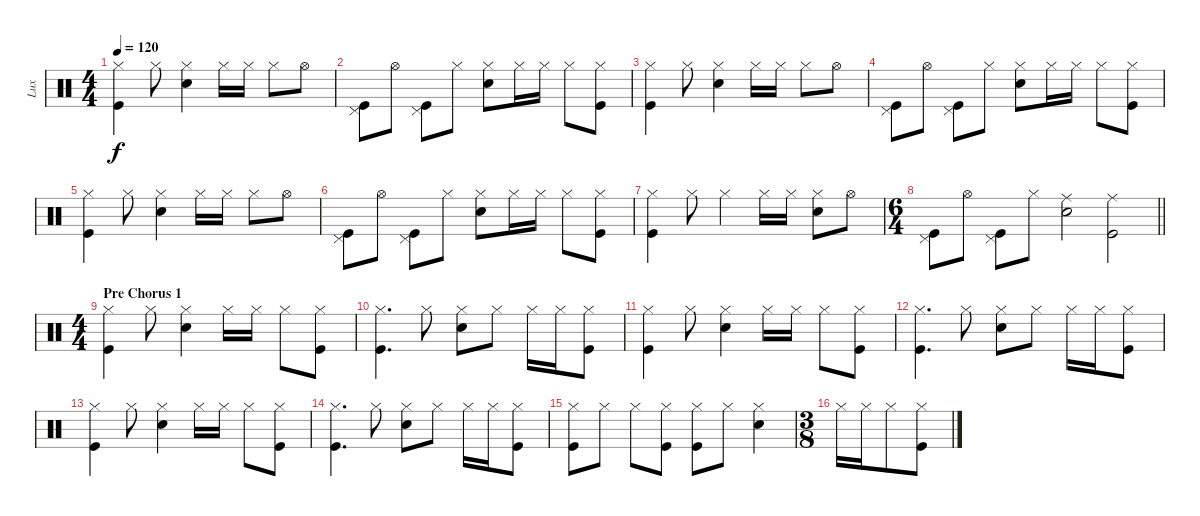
\track ("Lux" "Lux") {instrument percussion}
\staff {score}
\articulation defaults
\ts (4 4)
\tempo 120
\clef neutral
\ks c
("Hi-Hat (closed)" "Kick (hit)").4{dy f} "Hi-Hat (closed)".8 ("Hi-Hat (closed)" "Snare (hit) 2").4 "Hi-Hat (closed)".16 "Hi-Hat (closed)".16 "Hi-Hat (closed)".8 "Hi-Hat (open)".8 |
("Kick (hit)" "Pedal Hi-Hat (hit)").8 "Hi-Hat (open)".8 ("Kick (hit)" "Pedal Hi-Hat (hit)").8 "Hi-Hat (closed)".8 ("Hi-Hat (closed)" "Snare (hit) 2").8 "Hi-Hat (closed)".16 "Hi-Hat (closed)".16 "Hi-Hat (closed)".8 ("Hi-Hat (closed)" "Kick (hit)").8 |
("Hi-Hat (closed)" "Kick (hit)").4 "Hi-Hat (closed)".8 ("Hi-Hat (closed)" "Snare (hit) 2").4 "Hi-Hat (closed)".16 "Hi-Hat (closed)".16 "Hi-Hat (closed)".8 "Hi-Hat (open)".8 |
("Kick (hit)" "Pedal Hi-Hat (hit)").8 "Hi-Hat (open)".8 ("Kick (hit)" "Pedal Hi-Hat (hit)").8 "Hi-Hat (closed)".8 ("Hi-Hat (closed)" "Snare (hit) 2").8 "Hi-Hat (closed)".16 "Hi-Hat (closed)".16 "Hi-Hat (closed)".8 ("Hi-Hat (closed)" "Kick (hit)").8 |
("Hi-Hat (closed)" "Kick (hit)").4 "Hi-Hat (closed)".8 ("Hi-Hat (closed)" "Snare (hit) 2").4 "Hi-Hat (closed)".16 "Hi-Hat (closed)".16 "Hi-Hat (closed)".8 "Hi-Hat (open)".8 |
("Kick (hit)" "Pedal Hi-Hat (hit)").8 "Hi-Hat (open)".8 ("Kick (hit)" "Pedal Hi-Hat (hit)").8 "Hi-Hat (closed)".8 ("Hi-Hat (closed)" "Snare (hit) 2").8 "Hi-Hat (closed)".16 "Hi-Hat (closed)".16 "Hi-Hat (closed)".8 ("Hi-Hat (closed)" "Kick (hit)").8 |
("Hi-Hat (closed)" "Kick (hit)").4 "Hi-Hat (closed)".8 "Hi-Hat (closed)".4 "Hi-Hat (closed)".16 "Hi-Hat (closed)".16 ("Hi-Hat (closed)" "Snare (hit) 2").8 "Hi-Hat (open)".8 |
\ts (6 4)
\barLineRight lightlight
("Kick (hit)" "Pedal Hi-Hat (hit)").8 "Hi-Hat (open)".8 ("Kick (hit)" "Pedal Hi-Hat (hit)").8 "Hi-Hat (closed)".8 ("Ride (middle)" "Snare (hit) 2").2 ("Ride (middle)" "Kick (hit)").2 |
\ts (4 4)
\section ("" "Pre Chorus 1")
("Hi-Hat (closed)" "Kick (hit)").4 "Hi-Hat (closed)".8 ("Hi-Hat (closed)" "Snare (hit) 2").4 "Hi-Hat (closed)".16 "Hi-Hat (closed)".16 "Hi-Hat (closed)".8 ("Hi-Hat (closed)" "Kick (hit)").8 |
("Hi-Hat (closed)" "Kick (hit)").4{d} "Hi-Hat (closed)".8 ("Hi-Hat (closed)" "Snare (hit) 2").8 "Hi-Hat (closed)".8 "Hi-Hat (closed)".16 "Hi-Hat (closed)".16 ("Hi-Hat (closed)" "Kick (hit)").8 |
("Hi-Hat (closed)" "Kick (hit)").4 "Hi-Hat (closed)".8 ("Hi-Hat (closed)" "Snare (hit) 2").4 "Hi-Hat (closed)".16 "Hi-Hat (closed)".16 "Hi-Hat (closed)".8 ("Hi-Hat (closed)" "Kick (hit)").8 |
("Hi-Hat (closed)" "Kick (hit)").4{d} "Hi-Hat (closed)".8 ("Hi-Hat (closed)" "Snare (hit) 2").8 "Hi-Hat (closed)".8 "Hi-Hat (closed)".16 "Hi-Hat (closed)".16 ("Hi-Hat (closed)" "Kick (hit)").8 |
("Hi-Hat (closed)" "Kick (hit)").4 "Hi-Hat (closed)".8 ("Hi-Hat (closed)" "Snare (hit) 2").4 "Hi-Hat (closed)".16 "Hi-Hat (closed)".16 "Hi-Hat (closed)".8 ("Hi-Hat (closed)" "Kick (hit)").8 |
("Hi-Hat (closed)" "Kick (hit)").4{d} "Hi-Hat (closed)".8 ("Hi-Hat (closed)" "Snare (hit) 2").8 "Hi-Hat (closed)".8 "Hi-Hat (closed)".16 "Hi-Hat (closed)".16 ("Hi-Hat (closed)" "Kick (hit)").8 |
("Hi-Hat (closed)" "Kick (hit)").8 "Hi-Hat (closed)".8 "Hi-Hat (closed)".8 ("Hi-Hat (closed)" "Kick (hit)").8 ("Hi-Hat (closed)" "Kick (hit)").8 "Hi-Hat (closed)".8 ("Hi-Hat (closed)" "Snare (hit) 2").4 |
\ts (3 8)
"Hi-Hat (closed)".16 "Hi-Hat (closed)".16 "Hi-Hat (closed)".8 ("Hi-Hat (closed)" "Kick (hit)").8
